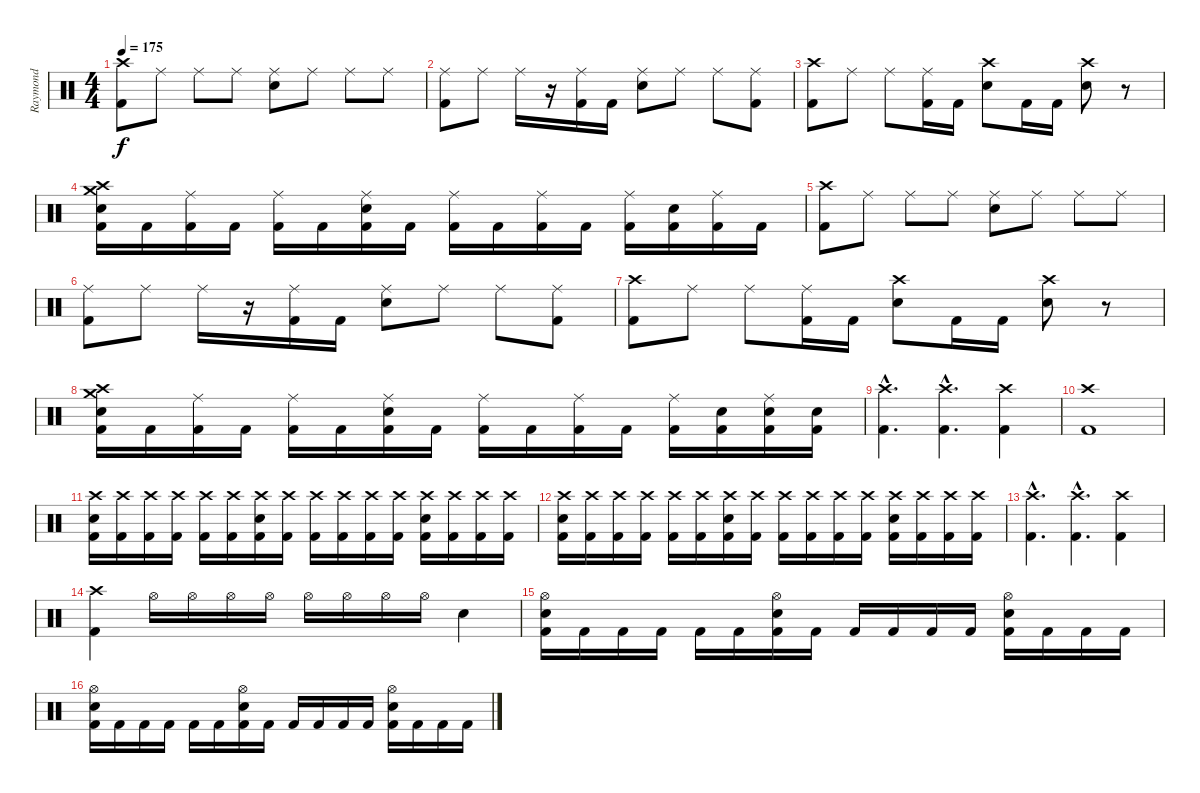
\track ("Raymond" "Raymond") {instrument percussion}
\staff {score}
\articulation defaults
\ts (4 4)
\tempo 175
\clef neutral
\ks c
("Crash high (hit)" "Kick (hit) 2").8{dy f} "Ride (middle)".8 "Ride (middle)".8 "Ride (middle)".8 ("Ride (middle)" "Electric Snare (hit)").8 "Ride (middle)".8 "Ride (middle)".8 "Ride (middle)".8 |
("Ride (middle)" "Kick (hit) 2").8 "Ride (middle)".8 "Ride (middle)".16 r.16 ("Ride (middle)" "Kick (hit) 2").16 "Kick (hit) 2".16 ("Ride (middle)" "Electric Snare (hit)").8 "Ride (middle)".8 "Ride (middle)".8 ("Ride (middle)" "Kick (hit) 2").8 |
("Crash high (hit)" "Kick (hit) 2").8 "Ride (middle)".8 "Ride (middle)".8 ("Ride (middle)" "Kick (hit) 2").16 "Kick (hit) 2".16 ("Crash high (hit)" "Electric Snare (hit)").8 "Kick (hit) 2".16 "Kick (hit) 2".16 ("Crash high (hit)" "Electric Snare (hit)").8 r.8 |
("Crash high (hit)" "Crash medium (hit)" "Electric Snare (hit)" "Kick (hit) 2").16 "Kick (hit) 2".16 ("Ride (middle)" "Kick (hit) 2").16 "Kick (hit) 2".16 ("Ride (middle)" "Kick (hit) 2").16 "Kick (hit) 2".16 ("Ride (middle)" "Electric Snare (hit)" "Kick (hit) 2").16 "Kick (hit) 2".16 ("Ride (middle)" "Kick (hit) 2").16 "Kick (hit) 2".16 ("Ride (middle)" "Kick (hit) 2").16 "Kick (hit) 2".16 ("Ride (middle)" "Kick (hit) 2").16 ("Electric Snare (hit)" "Kick (hit) 2").16 ("Ride (middle)" "Kick (hit) 2").16 "Kick (hit) 2".16 |
("Crash high (hit)" "Kick (hit) 2").8 "Ride (middle)".8 "Ride (middle)".8 "Ride (middle)".8 ("Ride (middle)" "Electric Snare (hit)").8 "Ride (middle)".8 "Ride (middle)".8 "Ride (middle)".8 |
("Ride (middle)" "Kick (hit) 2").8 "Ride (middle)".8 "Ride (middle)".16 r.16 ("Ride (middle)" "Kick (hit) 2").16 "Kick (hit) 2".16 ("Ride (middle)" "Electric Snare (hit)").8 "Ride (middle)".8 "Ride (middle)".8 ("Ride (middle)" "Kick (hit) 2").8 |
("Crash high (hit)" "Kick (hit) 2").8 "Ride (middle)".8 "Ride (middle)".8 ("Ride (middle)" "Kick (hit) 2").16 "Kick (hit) 2".16 ("Crash high (hit)" "Electric Snare (hit)").8 "Kick (hit) 2".16 "Kick (hit) 2".16 ("Crash high (hit)" "Electric Snare (hit)").8 r.8 |
("Crash high (hit)" "Crash medium (hit)" "Electric Snare (hit)" "Kick (hit) 2").16 "Kick (hit) 2".16 ("Ride (middle)" "Kick (hit) 2").16 "Kick (hit) 2".16 ("Ride (middle)" "Kick (hit) 2").16 "Kick (hit) 2".16 ("Ride (middle)" "Electric Snare (hit)" "Kick (hit) 2").16 "Kick (hit) 2".16 ("Ride (middle)" "Kick (hit) 2").16 "Kick (hit) 2".16 ("Ride (middle)" "Kick (hit) 2").16 "Kick (hit) 2".16 ("Ride (middle)" "Kick (hit) 2").16 ("Electric Snare (hit)" "Kick (hit) 2").16 ("Ride (middle)" "Electric Snare (hit)" "Kick (hit) 2").16 ("Electric Snare (hit)" "Kick (hit) 2").16 |
("Crash high (hit)"{hac} "Kick (hit) 2"{hac}).4{d} ("Crash high (hit)"{hac} "Kick (hit) 2"{hac}).4{d} ("Crash high (hit)" "Kick (hit) 2").4 |
("Crash high (hit)" "Kick (hit) 2").1 |
("Crash high (hit)" "Electric Snare (hit)" "Kick (hit) 2").16 ("Crash high (hit)" "Kick (hit) 2").16 ("Crash high (hit)" "Kick (hit) 2").16 ("Crash high (hit)" "Kick (hit) 2").16 ("Crash high (hit)" "Kick (hit) 2").16 ("Crash high (hit)" "Kick (hit) 2").16 ("Crash high (hit)" "Electric Snare (hit)" "Kick (hit) 2").16 ("Crash high (hit)" "Kick (hit) 2").16 ("Crash high (hit)" "Kick (hit) 2").16 ("Crash high (hit)" "Kick (hit) 2").16 ("Crash high (hit)" "Kick (hit) 2").16 ("Crash high (hit)" "Kick (hit) 2").16 ("Crash high (hit)" "Electric Snare (hit)" "Kick (hit) 2").16 ("Crash high (hit)" "Kick (hit) 2").16 ("Crash high (hit)" "Kick (hit) 2").16 ("Crash high (hit)" "Kick (hit) 2").16 |
("Crash high (hit)" "Electric Snare (hit)" "Kick (hit) 2").16 ("Crash high (hit)" "Kick (hit) 2").16 ("Crash high (hit)" "Kick (hit) 2").16 ("Crash high (hit)" "Kick (hit) 2").16 ("Crash high (hit)" "Kick (hit) 2").16 ("Crash high (hit)" "Kick (hit) 2").16 ("Crash high (hit)" "Electric Snare (hit)" "Kick (hit) 2").16 ("Crash high (hit)" "Kick (hit) 2").16 ("Crash high (hit)" "Kick (hit) 2").16 ("Crash high (hit)" "Kick (hit) 2").16 ("Crash high (hit)" "Kick (hit) 2").16 ("Crash high (hit)" "Kick (hit) 2").16 ("Crash high (hit)" "Electric Snare (hit)" "Kick (hit) 2").16 ("Crash high (hit)" "Kick (hit) 2").16 ("Crash high (hit)" "Kick (hit) 2").16 ("Crash high (hit)" "Kick (hit) 2").16 |
("Crash high (hit)"{hac} "Kick (hit) 2"{hac}).4{d} ("Crash high (hit)"{hac} "Kick (hit) 2"{hac}).4{d} ("Crash high (hit)" "Kick (hit) 2").4 |
("Crash high (hit)" "Kick (hit) 2").4 "Hi-Hat (open)".16 "Hi-Hat (open)".16 "Hi-Hat (open)".16 "Hi-Hat (open)".16 "Hi-Hat (open)".16 "Hi-Hat (open)".16 "Hi-Hat (open)".16 "Hi-Hat (open)".16 "Electric Snare (hit)".4 |
("Hi-Hat (open)" "Electric Snare (hit)" "Kick (hit) 2").16 "Kick (hit) 2".16 "Kick (hit) 2".16 "Kick (hit) 2".16 "Kick (hit) 2".16 "Kick (hit) 2".16 ("Hi-Hat (open)" "Electric Snare (hit)" "Kick (hit) 2").16 "Kick (hit) 2".16 "Kick (hit) 2".16 "Kick (hit) 2".16 "Kick (hit) 2".16 "Kick (hit) 2".16 ("Hi-Hat (open)" "Electric Snare (hit)" "Kick (hit) 2").16 "Kick (hit) 2".16 "Kick (hit) 2".16 "Kick (hit) 2".16 |
("Hi-Hat (open)" "Electric Snare (hit)" "Kick (hit) 2").16 "Kick (hit) 2".16 "Kick (hit) 2".16 "Kick (hit) 2".16 "Kick (hit) 2".16 "Kick (hit) 2".16 ("Hi-Hat (open)" "Electric Snare (hit)" "Kick (hit) 2").16 "Kick (hit) 2".16 "Kick (hit) 2".16 "Kick (hit) 2".16 "Kick (hit) 2".16 "Kick (hit) 2".16 ("Hi-Hat (open)" "Electric Snare (hit)" "Kick (hit) 2").16 "Kick (hit) 2".16 "Kick (hit) 2".16 "Kick (hit) 2".16
